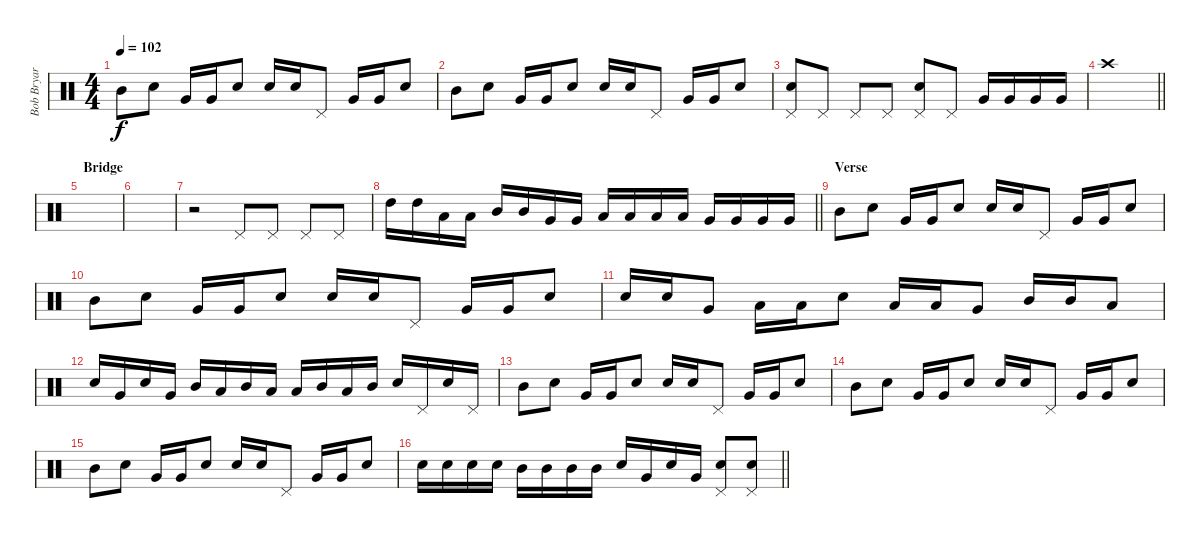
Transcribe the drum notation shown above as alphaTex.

\track ("Bob Bryar" "Bob Bryar") {instrument percussion}
\staff {score}
\articulation defaults
\ts (4 4)
\tempo 102
\clef neutral
\ks c "Mid Tom (hit)".8{dy f} "Electric Snare (hit)".8 "Very Low Tom (hit)".16 "Very Low Tom (hit)".16 "Electric Snare (hit)".8 "Electric Snare (hit)".16 "Electric Snare (hit)".16 "Pedal Hi-Hat (hit)".8 "Very Low Tom (hit)".16 "Very Low Tom (hit)".16 "Electric Snare (hit)".8
|
"Mid Tom (hit)".8 "Electric Snare (hit)".8 "Very Low Tom (hit)".16 "Very Low Tom (hit)".16 "Electric Snare (hit)".8 "Electric Snare (hit)".16 "Electric Snare (hit)".16 "Pedal Hi-Hat (hit)".8 "Very Low Tom (hit)".16 "Very Low Tom (hit)".16 "Electric Snare (hit)".8 |
("Pedal Hi-Hat (hit)" "Electric Snare (hit)").8 "Pedal Hi-Hat (hit)".8 "Pedal Hi-Hat (hit)".8 "Pedal Hi-Hat (hit)".8 ("Pedal Hi-Hat (hit)" "Electric Snare (hit)").8 "Pedal Hi-Hat (hit)".8 "Very Low Tom (hit)".16 "Very Low Tom (hit)".16 "Very Low Tom (hit)".16 "Very Low Tom (hit)".16 |
\barLineRight lightlight "Crash high (hit)".1
|
\section ("" "Bridge")
|
|
r.2 "Pedal Hi-Hat (hit)".8 "Pedal Hi-Hat (hit)".8 "Pedal Hi-Hat (hit)".8 "Pedal Hi-Hat (hit)".8 |
\barLineRight lightlight "High Tom (hit)".16 "High Tom (hit)".16 "Low Tom (hit)".16 "Low Tom (hit)".16 "Mid Tom (hit)".16 "Mid Tom (hit)".16 "Very Low Tom (hit)".16 "Very Low Tom (hit)".16 "Low Tom (hit)".16 "Low Tom (hit)".16 "Low Tom (hit)".16 "Low Tom (hit)".16 "Very Low Tom (hit)".16 "Very Low Tom (hit)".16 "Very Low Tom (hit)".16 "Very Low Tom (hit)".16
|
\section ("" "Verse")
"Mid Tom (hit)".8 "Electric Snare (hit)".8 "Very Low Tom (hit)".16 "Very Low Tom (hit)".16 "Electric Snare (hit)".8 "Electric Snare (hit)".16 "Electric Snare (hit)".16 "Pedal Hi-Hat (hit)".8 "Very Low Tom (hit)".16 "Very Low Tom (hit)".16 "Electric Snare (hit)".8 |
"Mid Tom (hit)".8 "Electric Snare (hit)".8 "Very Low Tom (hit)".16 "Very Low Tom (hit)".16 "Electric Snare (hit)".8 "Electric Snare (hit)".16 "Electric Snare (hit)".16 "Pedal Hi-Hat (hit)".8 "Very Low Tom (hit)".16 "Very Low Tom (hit)".16 "Electric Snare (hit)".8 |
"Electric Snare (hit)".16 "Electric Snare (hit)".16 "Very Low Tom (hit)".8 "Low Tom (hit)".16 "Low Tom (hit)".16 "Electric Snare (hit)".8 "Low Floor Tom (hit)".16 "Low Floor Tom (hit)".16 "Very Low Tom (hit)".8 "Mid Tom (hit)".16 "Mid Tom (hit)".16 "Low Tom (hit)".8 |
"Electric Snare (hit)".16 "Very Low Tom (hit)".16 "Electric Snare (hit)".16 "Very Low Tom (hit)".16 "Mid Tom (hit)".16 "Low Tom (hit)".16 "Mid Tom (hit)".16 "Low Tom (hit)".16 "Low Tom (hit)".16 "Mid Tom (hit)".16 "Low Tom (hit)".16 "Mid Tom (hit)".16 "Electric Snare (hit)".16 "Pedal Hi-Hat (hit)".16 "Electric Snare (hit)".16 "Pedal Hi-Hat (hit)".16 |
"Mid Tom (hit)".8 "Electric Snare (hit)".8 "Very Low Tom (hit)".16 "Very Low Tom (hit)".16 "Electric Snare (hit)".8 "Electric Snare (hit)".16 "Electric Snare (hit)".16 "Pedal Hi-Hat (hit)".8 "Very Low Tom (hit)".16 "Very Low Tom (hit)".16 "Electric Snare (hit)".8 |
"Mid Tom (hit)".8 "Electric Snare (hit)".8 "Very Low Tom (hit)".16 "Very Low Tom (hit)".16 "Electric Snare (hit)".8 "Electric Snare (hit)".16 "Electric Snare (hit)".16 "Pedal Hi-Hat (hit)".8 "Very Low Tom (hit)".16 "Very Low Tom (hit)".16 "Electric Snare (hit)".8 |
"Mid Tom (hit)".8 "Electric Snare (hit)".8 "Very Low Tom (hit)".16 "Very Low Tom (hit)".16 "Electric Snare (hit)".8 "Electric Snare (hit)".16 "Electric Snare (hit)".16 "Pedal Hi-Hat (hit)".8 "Very Low Tom (hit)".16 "Very Low Tom (hit)".16 "Electric Snare (hit)".8 |
\barLineRight lightlight "Electric Snare (hit)".16 "Electric Snare (hit)".16 "Electric Snare (hit)".16 "Electric Snare (hit)".16 "Mid Tom (hit)".16 "Mid Tom (hit)".16 "Mid Tom (hit)".16 "Mid Tom (hit)".16 "Electric Snare (hit)".16 "Very Low Tom (hit)".16 "Electric Snare (hit)".16 "Very Low Tom (hit)".16
("Electric Snare (hit)" "Pedal Hi-Hat (hit)").8 ("Electric Snare (hit)" "Pedal Hi-Hat (hit)").8
